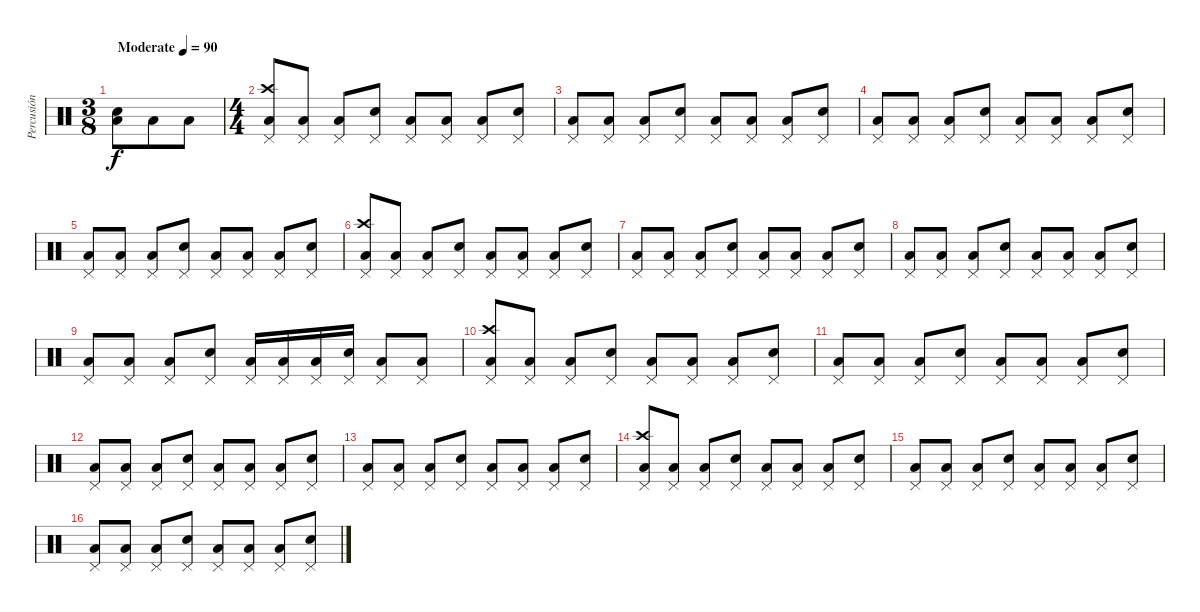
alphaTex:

\track ("Percusión" "Percusión") {instrument percussion}
\staff {score}
\articulation defaults
\ts (3 8)
\tempo (90 "Moderate")
\clef neutral
\ks c
("Low Tom (hit)" "Snare (hit) 2").8{dy f} "Low Tom (hit)".8 "Low Tom (hit)".8 |
\ts (4 4)
("Crash high (hit)" "Pedal Hi-Hat (hit)" "Low Tom (hit)").8 ("Pedal Hi-Hat (hit)" "Low Tom (hit)").8 ("Pedal Hi-Hat (hit)" "Low Tom (hit)").8 ("Pedal Hi-Hat (hit)" "Snare (hit) 2").8 ("Pedal Hi-Hat (hit)" "Low Tom (hit)").8 ("Pedal Hi-Hat (hit)" "Low Tom (hit)").8 ("Pedal Hi-Hat (hit)" "Low Tom (hit)").8 ("Pedal Hi-Hat (hit)" "Snare (hit) 2").8 |
("Pedal Hi-Hat (hit)" "Low Tom (hit)").8 ("Pedal Hi-Hat (hit)" "Low Tom (hit)").8 ("Pedal Hi-Hat (hit)" "Low Tom (hit)").8 ("Pedal Hi-Hat (hit)" "Snare (hit) 2").8 ("Pedal Hi-Hat (hit)" "Low Tom (hit)").8 ("Pedal Hi-Hat (hit)" "Low Tom (hit)").8 ("Pedal Hi-Hat (hit)" "Low Tom (hit)").8 ("Pedal Hi-Hat (hit)" "Snare (hit) 2").8 |
("Pedal Hi-Hat (hit)" "Low Tom (hit)").8 ("Pedal Hi-Hat (hit)" "Low Tom (hit)").8 ("Pedal Hi-Hat (hit)" "Low Tom (hit)").8 ("Pedal Hi-Hat (hit)" "Snare (hit) 2").8 ("Pedal Hi-Hat (hit)" "Low Tom (hit)").8 ("Pedal Hi-Hat (hit)" "Low Tom (hit)").8 ("Pedal Hi-Hat (hit)" "Low Tom (hit)").8 ("Pedal Hi-Hat (hit)" "Snare (hit) 2").8 |
("Pedal Hi-Hat (hit)" "Low Tom (hit)").8 ("Pedal Hi-Hat (hit)" "Low Tom (hit)").8 ("Pedal Hi-Hat (hit)" "Low Tom (hit)").8 ("Pedal Hi-Hat (hit)" "Snare (hit) 2").8 ("Pedal Hi-Hat (hit)" "Low Tom (hit)").8 ("Pedal Hi-Hat (hit)" "Low Tom (hit)").8 ("Pedal Hi-Hat (hit)" "Low Tom (hit)").8 ("Pedal Hi-Hat (hit)" "Snare (hit) 2").8 |
("Crash high (hit)" "Pedal Hi-Hat (hit)" "Low Tom (hit)").8 ("Pedal Hi-Hat (hit)" "Low Tom (hit)").8 ("Pedal Hi-Hat (hit)" "Low Tom (hit)").8 ("Pedal Hi-Hat (hit)" "Snare (hit) 2").8 ("Pedal Hi-Hat (hit)" "Low Tom (hit)").8 ("Pedal Hi-Hat (hit)" "Low Tom (hit)").8 ("Pedal Hi-Hat (hit)" "Low Tom (hit)").8 ("Pedal Hi-Hat (hit)" "Snare (hit) 2").8 |
("Pedal Hi-Hat (hit)" "Low Tom (hit)").8 ("Pedal Hi-Hat (hit)" "Low Tom (hit)").8 ("Pedal Hi-Hat (hit)" "Low Tom (hit)").8 ("Pedal Hi-Hat (hit)" "Snare (hit) 2").8 ("Pedal Hi-Hat (hit)" "Low Tom (hit)").8 ("Pedal Hi-Hat (hit)" "Low Tom (hit)").8 ("Pedal Hi-Hat (hit)" "Low Tom (hit)").8 ("Pedal Hi-Hat (hit)" "Snare (hit) 2").8 |
("Pedal Hi-Hat (hit)" "Low Tom (hit)").8 ("Pedal Hi-Hat (hit)" "Low Tom (hit)").8 ("Pedal Hi-Hat (hit)" "Low Tom (hit)").8 ("Pedal Hi-Hat (hit)" "Snare (hit) 2").8 ("Pedal Hi-Hat (hit)" "Low Tom (hit)").8 ("Pedal Hi-Hat (hit)" "Low Tom (hit)").8 ("Pedal Hi-Hat (hit)" "Low Tom (hit)").8 ("Pedal Hi-Hat (hit)" "Snare (hit) 2").8 |
("Pedal Hi-Hat (hit)" "Low Tom (hit)").8 ("Pedal Hi-Hat (hit)" "Low Tom (hit)").8 ("Pedal Hi-Hat (hit)" "Low Tom (hit)").8 ("Pedal Hi-Hat (hit)" "Snare (hit) 2").8 ("Pedal Hi-Hat (hit)" "Low Tom (hit)").16 ("Pedal Hi-Hat (hit)" "Low Tom (hit)").16 ("Pedal Hi-Hat (hit)" "Low Tom (hit)").16 ("Pedal Hi-Hat (hit)" "Snare (hit) 2").16 ("Pedal Hi-Hat (hit)" "Low Tom (hit)").8 ("Pedal Hi-Hat (hit)" "Low Tom (hit)").8 |
("Crash high (hit)" "Pedal Hi-Hat (hit)" "Low Tom (hit)").8 ("Pedal Hi-Hat (hit)" "Low Tom (hit)").8 ("Pedal Hi-Hat (hit)" "Low Tom (hit)").8 ("Pedal Hi-Hat (hit)" "Snare (hit) 2").8 ("Pedal Hi-Hat (hit)" "Low Tom (hit)").8 ("Pedal Hi-Hat (hit)" "Low Tom (hit)").8 ("Pedal Hi-Hat (hit)" "Low Tom (hit)").8 ("Pedal Hi-Hat (hit)" "Snare (hit) 2").8 |
("Pedal Hi-Hat (hit)" "Low Tom (hit)").8 ("Pedal Hi-Hat (hit)" "Low Tom (hit)").8 ("Pedal Hi-Hat (hit)" "Low Tom (hit)").8 ("Pedal Hi-Hat (hit)" "Snare (hit) 2").8 ("Pedal Hi-Hat (hit)" "Low Tom (hit)").8 ("Pedal Hi-Hat (hit)" "Low Tom (hit)").8 ("Pedal Hi-Hat (hit)" "Low Tom (hit)").8 ("Pedal Hi-Hat (hit)" "Snare (hit) 2").8 |
("Pedal Hi-Hat (hit)" "Low Tom (hit)").8 ("Pedal Hi-Hat (hit)" "Low Tom (hit)").8 ("Pedal Hi-Hat (hit)" "Low Tom (hit)").8 ("Pedal Hi-Hat (hit)" "Snare (hit) 2").8 ("Pedal Hi-Hat (hit)" "Low Tom (hit)").8 ("Pedal Hi-Hat (hit)" "Low Tom (hit)").8 ("Pedal Hi-Hat (hit)" "Low Tom (hit)").8 ("Pedal Hi-Hat (hit)" "Snare (hit) 2").8 |
("Pedal Hi-Hat (hit)" "Low Tom (hit)").8 ("Pedal Hi-Hat (hit)" "Low Tom (hit)").8 ("Pedal Hi-Hat (hit)" "Low Tom (hit)").8 ("Pedal Hi-Hat (hit)" "Snare (hit) 2").8 ("Pedal Hi-Hat (hit)" "Low Tom (hit)").8 ("Pedal Hi-Hat (hit)" "Low Tom (hit)").8 ("Pedal Hi-Hat (hit)" "Low Tom (hit)").8 ("Pedal Hi-Hat (hit)" "Snare (hit) 2").8 |
("Crash high (hit)" "Pedal Hi-Hat (hit)" "Low Tom (hit)").8 ("Pedal Hi-Hat (hit)" "Low Tom (hit)").8 ("Pedal Hi-Hat (hit)" "Low Tom (hit)").8 ("Pedal Hi-Hat (hit)" "Snare (hit) 2").8 ("Pedal Hi-Hat (hit)" "Low Tom (hit)").8 ("Pedal Hi-Hat (hit)" "Low Tom (hit)").8 ("Pedal Hi-Hat (hit)" "Low Tom (hit)").8 ("Pedal Hi-Hat (hit)" "Snare (hit) 2").8 |
("Pedal Hi-Hat (hit)" "Low Tom (hit)").8 ("Pedal Hi-Hat (hit)" "Low Tom (hit)").8 ("Pedal Hi-Hat (hit)" "Low Tom (hit)").8 ("Pedal Hi-Hat (hit)" "Snare (hit) 2").8 ("Pedal Hi-Hat (hit)" "Low Tom (hit)").8 ("Pedal Hi-Hat (hit)" "Low Tom (hit)").8 ("Pedal Hi-Hat (hit)" "Low Tom (hit)").8 ("Pedal Hi-Hat (hit)" "Snare (hit) 2").8 |
("Pedal Hi-Hat (hit)" "Low Tom (hit)").8 ("Pedal Hi-Hat (hit)" "Low Tom (hit)").8 ("Pedal Hi-Hat (hit)" "Low Tom (hit)").8 ("Pedal Hi-Hat (hit)" "Snare (hit) 2").8 ("Pedal Hi-Hat (hit)" "Low Tom (hit)").8 ("Pedal Hi-Hat (hit)" "Low Tom (hit)").8 ("Pedal Hi-Hat (hit)" "Low Tom (hit)").8 ("Pedal Hi-Hat (hit)" "Snare (hit) 2").8
